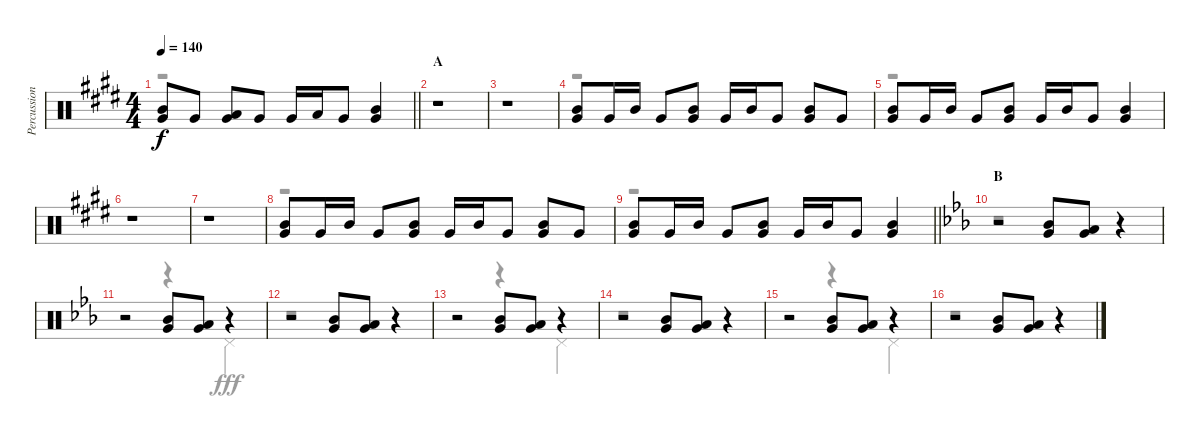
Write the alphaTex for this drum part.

\track ("Percussion" "Percussion") {instrument percussion}
\staff {score}
\articulation defaults
\voice
\ts (4 4)
\tempo 140
\clef neutral
\barLineRight lightlight
\ks e
("Mid Tom (hit)" "Very Low Tom (hit)").8{dy f} "Very Low Tom (hit)".8 ("Low Tom (hit)" "Very Low Tom (hit)").8 "Very Low Tom (hit)".8 "Very Low Tom (hit)".16 "Low Tom (hit)".16 "Very Low Tom (hit)".8 ("Mid Tom (hit)" "Very Low Tom (hit)").4 |
\section ("" "A")
r.1 |
r.1 |
("Mid Tom (hit)" "Very Low Tom (hit)").8 "Very Low Tom (hit)".16 "Mid Tom (hit)".16 "Very Low Tom (hit)".8 ("Mid Tom (hit)" "Very Low Tom (hit)").8 "Very Low Tom (hit)".16 "Mid Tom (hit)".16 "Very Low Tom (hit)".8 ("Mid Tom (hit)" "Very Low Tom (hit)").8 "Very Low Tom (hit)".8 |
("Mid Tom (hit)" "Very Low Tom (hit)").8 "Very Low Tom (hit)".16 "Mid Tom (hit)".16 "Very Low Tom (hit)".8 ("Mid Tom (hit)" "Very Low Tom (hit)").8 "Very Low Tom (hit)".16 "Mid Tom (hit)".16 "Very Low Tom (hit)".8 ("Mid Tom (hit)" "Very Low Tom (hit)").4 |
r.1 |
r.1 |
("Mid Tom (hit)" "Very Low Tom (hit)").8 "Very Low Tom (hit)".16 "Mid Tom (hit)".16 "Very Low Tom (hit)".8 ("Mid Tom (hit)" "Very Low Tom (hit)").8 "Very Low Tom (hit)".16 "Mid Tom (hit)".16 "Very Low Tom (hit)".8 ("Mid Tom (hit)" "Very Low Tom (hit)").8 "Very Low Tom (hit)".8 |
\barLineRight lightlight
("Mid Tom (hit)" "Very Low Tom (hit)").8 "Very Low Tom (hit)".16 "Mid Tom (hit)".16 "Very Low Tom (hit)".8 ("Mid Tom (hit)" "Very Low Tom (hit)").8 "Very Low Tom (hit)".16 "Mid Tom (hit)".16 "Very Low Tom (hit)".8 ("Mid Tom (hit)" "Very Low Tom (hit)").4 |
\section ("" "B")
\ks eb
r.2 ("Mid Tom (hit)" "Very Low Tom (hit)").8 ("Low Tom (hit)" "Very Low Tom (hit)").8 r.4 |
r.2 ("Mid Tom (hit)" "Very Low Tom (hit)").8 ("Low Tom (hit)" "Very Low Tom (hit)").8 r.4 |
r.2 ("Mid Tom (hit)" "Very Low Tom (hit)").8 ("Low Tom (hit)" "Very Low Tom (hit)").8 r.4 |
r.2 ("Mid Tom (hit)" "Very Low Tom (hit)").8 ("Low Tom (hit)" "Very Low Tom (hit)").8 r.4 |
r.2 ("Mid Tom (hit)" "Very Low Tom (hit)").8 ("Low Tom (hit)" "Very Low Tom (hit)").8 r.4 |
r.2 ("Mid Tom (hit)" "Very Low Tom (hit)").8 ("Low Tom (hit)" "Very Low Tom (hit)").8 r.4 |
r.2 ("Mid Tom (hit)" "Very Low Tom (hit)").8 ("Low Tom (hit)" "Very Low Tom (hit)").8 r.4
\voice
\clef neutral
\ottava regular
\simile none
\barLineRight lightlight
\ks e
r.1{dy fff} |
r.1 |
r.1 |
r.1 |
r.1 |
r.1 |
r.1 |
r.1 |
\barLineRight lightlight
r.1 |
\ks eb
r.1 |
r.2 r.4 "Pedal Hi-Hat (hit)".4 |
r.1 |
r.2 r.4 "Pedal Hi-Hat (hit)".4 |
r.1 |
r.2 r.4 "Pedal Hi-Hat (hit)".4 |
r.1
